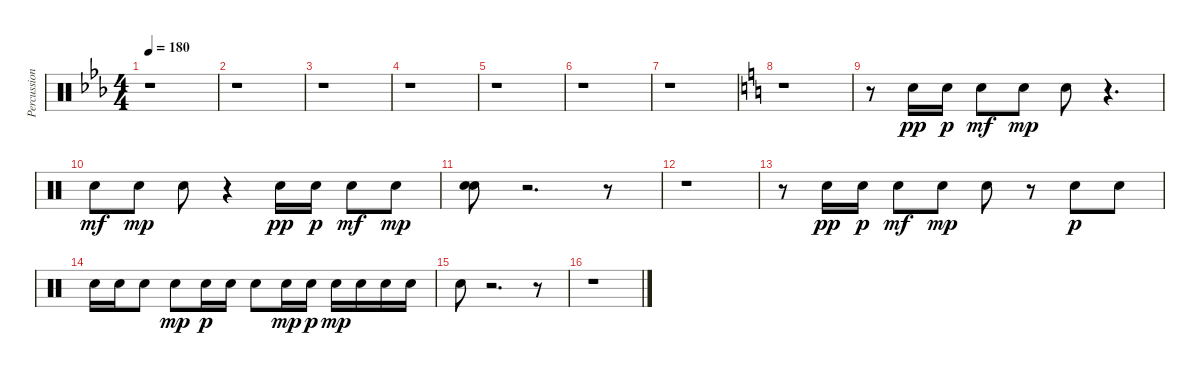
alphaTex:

\track ("Percussion" "Percussion") {instrument percussion}
\staff {score}
\articulation defaults
\ts (4 4)
\tempo 180
\clef neutral
\ks cminor
r.1{dy f} |
r.1 |
r.1 |
r.1 |
r.1 |
r.1 |
r.1 |
\ks c
r.1 |
r.8 "Snare (hit) 2".16{dy pp volume 8 balance 14} "Snare (hit) 2".16{dy p} "Snare (hit) 2".8{dy mf} "Snare (hit) 2".8{dy mp} "Snare (hit) 2".8 r.4{d} |
"Snare (hit) 2".8{dy mf} "Snare (hit) 2".8{dy mp} "Snare (hit) 2".8 r.4 "Snare (hit) 2".16{dy pp} "Snare (hit) 2".16{dy p} "Snare (hit) 2".8{dy mf} "Snare (hit) 2".8{dy mp} |
("Snare (hit) 2" "Snare (hit) 2").8 r.2{d} r.8 |
r.1 |
r.8 "Snare (hit) 2".16{dy pp} "Snare (hit) 2".16{dy p} "Snare (hit) 2".8{dy mf} "Snare (hit) 2".8{dy mp} "Snare (hit) 2".8 r.8 "Snare (hit) 2".8{dy p} "Snare (hit) 2".8 |
"Snare (hit) 2".16 "Snare (hit) 2".16 "Snare (hit) 2".8 "Snare (hit) 2".8{dy mp} "Snare (hit) 2".16{dy p} "Snare (hit) 2".16 "Snare (hit) 2".8 "Snare (hit) 2".16{dy mp} "Snare (hit) 2".16{dy p} "Snare (hit) 2".16{dy mp} "Snare (hit) 2".16 "Snare (hit) 2".16 "Snare (hit) 2".16 |
"Snare (hit) 2".8 r.2{d} r.8 |
r.1
